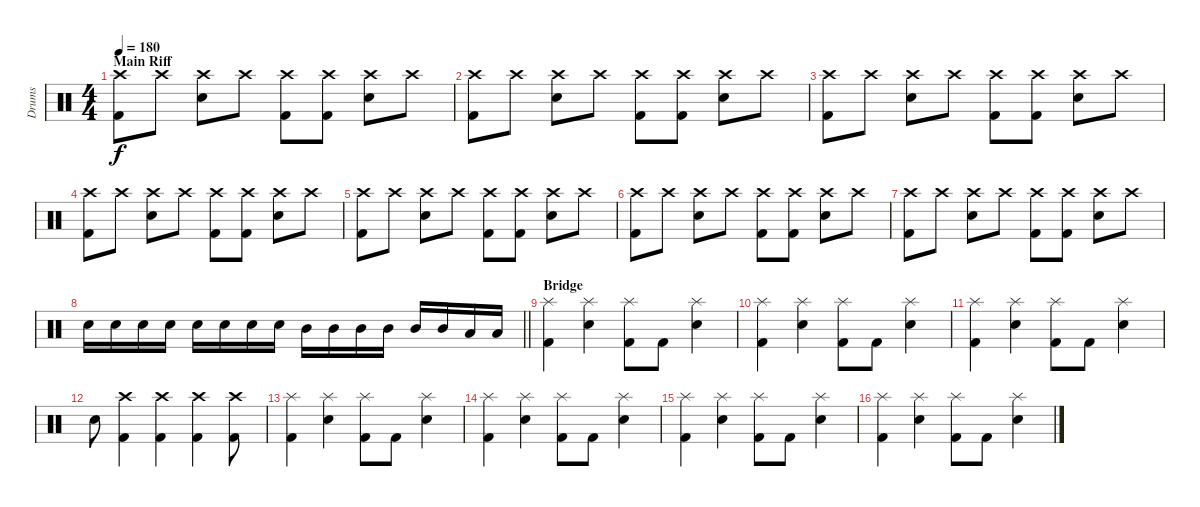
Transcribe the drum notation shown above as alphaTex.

\track ("Drums" "Drums") {instrument percussion}
\staff {score}
\articulation defaults
\ts (4 4)
\section ("" "Main Riff")
\tempo 180
\clef neutral
\ks c
("Crash high (hit)" "Kick (hit) 2").8{dy f} "Crash high (hit)".8 ("Crash high (hit)" "Snare (hit) 2").8 "Crash high (hit)".8 ("Crash high (hit)" "Kick (hit) 2").8 ("Crash high (hit)" "Kick (hit) 2").8 ("Crash high (hit)" "Snare (hit) 2").8 "Crash high (hit)".8 |
("Crash high (hit)" "Kick (hit) 2").8 "Crash high (hit)".8 ("Crash high (hit)" "Snare (hit) 2").8 "Crash high (hit)".8 ("Crash high (hit)" "Kick (hit) 2").8 ("Crash high (hit)" "Kick (hit) 2").8 ("Crash high (hit)" "Snare (hit) 2").8 "Crash high (hit)".8 |
("Crash high (hit)" "Kick (hit) 2").8 "Crash high (hit)".8 ("Crash high (hit)" "Snare (hit) 2").8 "Crash high (hit)".8 ("Crash high (hit)" "Kick (hit) 2").8 ("Crash high (hit)" "Kick (hit) 2").8 ("Crash high (hit)" "Snare (hit) 2").8 "Crash high (hit)".8 |
("Crash high (hit)" "Kick (hit) 2").8 "Crash high (hit)".8 ("Crash high (hit)" "Snare (hit) 2").8 "Crash high (hit)".8 ("Crash high (hit)" "Kick (hit) 2").8 ("Crash high (hit)" "Kick (hit) 2").8 ("Crash high (hit)" "Snare (hit) 2").8 "Crash high (hit)".8 |
("Crash high (hit)" "Kick (hit) 2").8 "Crash high (hit)".8 ("Crash high (hit)" "Snare (hit) 2").8 "Crash high (hit)".8 ("Crash high (hit)" "Kick (hit) 2").8 ("Crash high (hit)" "Kick (hit) 2").8 ("Crash high (hit)" "Snare (hit) 2").8 "Crash high (hit)".8 |
("Crash high (hit)" "Kick (hit) 2").8 "Crash high (hit)".8 ("Crash high (hit)" "Snare (hit) 2").8 "Crash high (hit)".8 ("Crash high (hit)" "Kick (hit) 2").8 ("Crash high (hit)" "Kick (hit) 2").8 ("Crash high (hit)" "Snare (hit) 2").8 "Crash high (hit)".8 |
("Crash high (hit)" "Kick (hit) 2").8 "Crash high (hit)".8 ("Crash high (hit)" "Snare (hit) 2").8 "Crash high (hit)".8 ("Crash high (hit)" "Kick (hit) 2").8 ("Crash high (hit)" "Kick (hit) 2").8 ("Crash high (hit)" "Snare (hit) 2").8 "Crash high (hit)".8 |
\barLineRight lightlight "Snare (hit) 2".16 "Snare (hit) 2".16 "Snare (hit) 2".16 "Snare (hit) 2".16 "Snare (hit) 2".16 "Snare (hit) 2".16 "Snare (hit) 2".16 "Snare (hit) 2".16 "Mid Tom (hit)".16 "Mid Tom (hit)".16 "Mid Tom (hit)".16 "Mid Tom (hit)".16 "Mid Tom (hit)".16 "Mid Tom (hit)".16 "Low Tom (hit)".16 "Low Tom (hit)".16
|
\section ("" "Bridge")
("Splash (hit)" "Kick (hit) 2").4 ("Splash (hit)" "Snare (hit) 2").4 ("Splash (hit)" "Kick (hit) 2").8 "Kick (hit) 2".8 ("Splash (hit)" "Snare (hit) 2").4 |
("Splash (hit)" "Kick (hit) 2").4 ("Splash (hit)" "Snare (hit) 2").4 ("Splash (hit)" "Kick (hit) 2").8 "Kick (hit) 2".8 ("Splash (hit)" "Snare (hit) 2").4 |
("Splash (hit)" "Kick (hit) 2").4 ("Splash (hit)" "Snare (hit) 2").4 ("Splash (hit)" "Kick (hit) 2").8 "Kick (hit) 2".8 ("Splash (hit)" "Snare (hit) 2").4 |
"Snare (hit) 2".8 ("Crash high (hit)" "Kick (hit) 2").4 ("Crash high (hit)" "Kick (hit) 2").4 ("Crash high (hit)" "Kick (hit) 2").4 ("Crash high (hit)" "Kick (hit) 2").8 |
("Splash (hit)" "Kick (hit) 2").4 ("Splash (hit)" "Snare (hit) 2").4 ("Splash (hit)" "Kick (hit) 2").8 "Kick (hit) 2".8 ("Splash (hit)" "Snare (hit) 2").4 |
("Splash (hit)" "Kick (hit) 2").4 ("Splash (hit)" "Snare (hit) 2").4 ("Splash (hit)" "Kick (hit) 2").8 "Kick (hit) 2".8 ("Splash (hit)" "Snare (hit) 2").4 |
("Splash (hit)" "Kick (hit) 2").4 ("Splash (hit)" "Snare (hit) 2").4 ("Splash (hit)" "Kick (hit) 2").8 "Kick (hit) 2".8 ("Splash (hit)" "Snare (hit) 2").4 |
("Splash (hit)" "Kick (hit) 2").4 ("Splash (hit)" "Snare (hit) 2").4 ("Splash (hit)" "Kick (hit) 2").8 "Kick (hit) 2".8 ("Splash (hit)" "Snare (hit) 2").4
